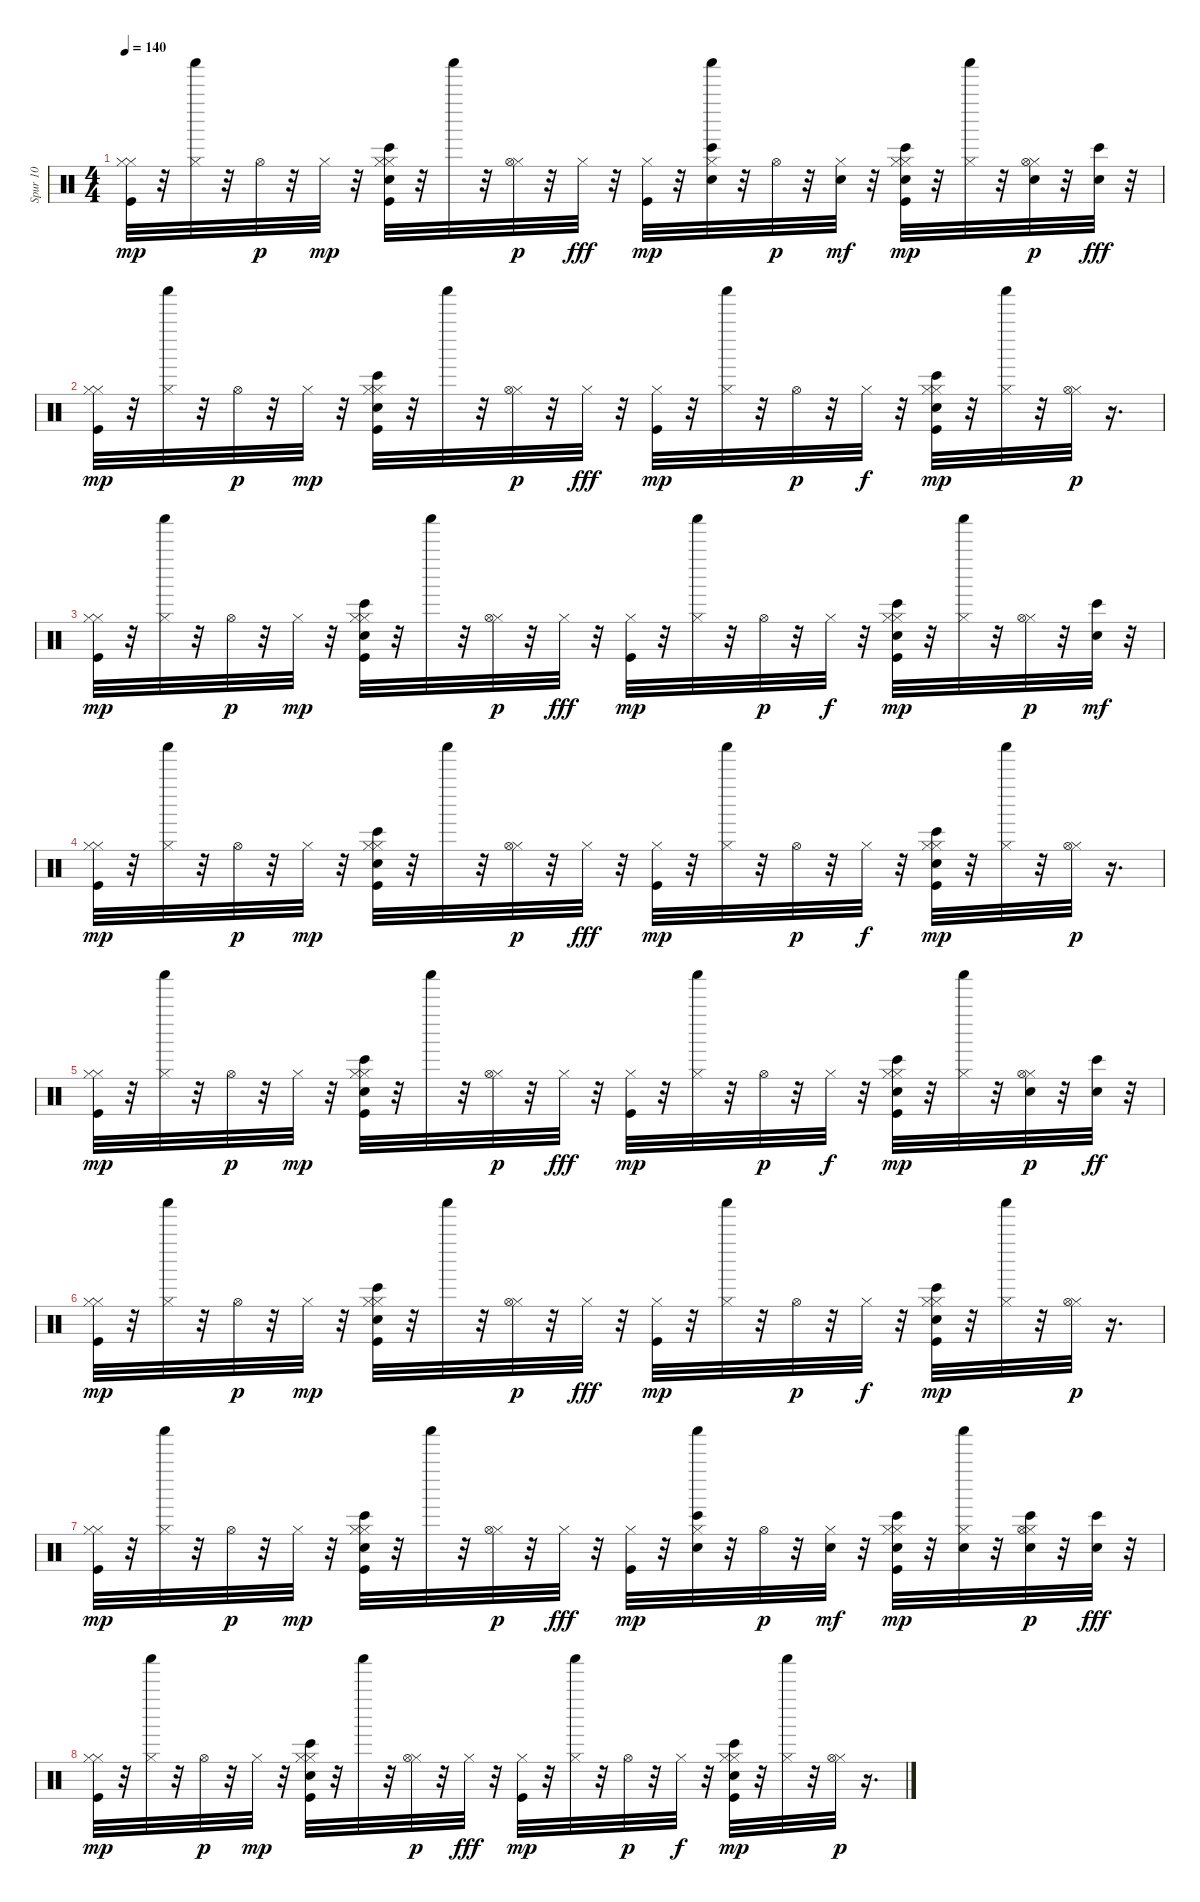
\track ("Spur 10" "Spur 10") {instrument percussion}
\staff {score}
\articulation defaults
\ts (4 4)
\tempo 140
\clef neutral
\ks c
("Hi-Hat (closed)" "Kick (hit)" "Hi-Hat (closed)").32{dy mp} r.32 ("Hi-Hat (closed)" "Shaker (hit)").32 r.32 "Hi-Hat (open)".32{dy p} r.32 "Hi-Hat (closed)".32{dy mp} r.32 ("Hi-Hat (closed)" "Kick (hit)" "Bongo High (hit)" "Electric Snare (hit)" "Hi-Hat (closed)").32 r.32 "Shaker (hit)".32 r.32 ("Hi-Hat (closed)" "Hi-Hat (open)").32{dy p} r.32 "Hi-Hat (closed)".32{dy fff} r.32 ("Kick (hit)" "Hi-Hat (closed)").32{dy mp} r.32 ("Hi-Hat (closed)" "Shaker (hit)" "Electric Snare (hit)" "Bongo High (hit)").32 r.32 "Hi-Hat (open)".32{dy p} r.32 ("Hi-Hat (closed)" "Snare (hit) 2").32{dy mf} r.32 ("Hi-Hat (closed)" "Kick (hit)" "Bongo High (hit)" "Electric Snare (hit)" "Hi-Hat (closed)").32{dy mp} r.32 ("Hi-Hat (closed)" "Shaker (hit)").32 r.32 ("Hi-Hat (closed)" "Snare (hit) 2" "Hi-Hat (open)").32{dy p} r.32 ("Bongo High (hit)" "Electric Snare (hit)").32{dy fff} r.32 |
("Hi-Hat (closed)" "Kick (hit)" "Hi-Hat (closed)").32{dy mp} r.32 ("Hi-Hat (closed)" "Shaker (hit)").32 r.32 "Hi-Hat (open)".32{dy p} r.32 "Hi-Hat (closed)".32{dy mp} r.32 ("Hi-Hat (closed)" "Kick (hit)" "Bongo High (hit)" "Electric Snare (hit)" "Hi-Hat (closed)").32 r.32 "Shaker (hit)".32 r.32 ("Hi-Hat (closed)" "Hi-Hat (open)").32{dy p} r.32 "Hi-Hat (closed)".32{dy fff} r.32 ("Kick (hit)" "Hi-Hat (closed)").32{dy mp} r.32 ("Hi-Hat (closed)" "Shaker (hit)").32 r.32 "Hi-Hat (open)".32{dy p} r.32 "Hi-Hat (closed)".32{dy f} r.32 ("Hi-Hat (closed)" "Kick (hit)" "Bongo High (hit)" "Electric Snare (hit)" "Hi-Hat (closed)").32{dy mp} r.32 ("Hi-Hat (closed)" "Shaker (hit)").32 r.32 ("Hi-Hat (closed)" "Hi-Hat (open)").32{dy p} r.16{d} |
("Hi-Hat (closed)" "Kick (hit)" "Hi-Hat (closed)").32{dy mp} r.32 ("Hi-Hat (closed)" "Shaker (hit)").32 r.32 "Hi-Hat (open)".32{dy p} r.32 "Hi-Hat (closed)".32{dy mp} r.32 ("Hi-Hat (closed)" "Kick (hit)" "Bongo High (hit)" "Electric Snare (hit)" "Hi-Hat (closed)").32 r.32 "Shaker (hit)".32 r.32 ("Hi-Hat (closed)" "Hi-Hat (open)").32{dy p} r.32 "Hi-Hat (closed)".32{dy fff} r.32 ("Kick (hit)" "Hi-Hat (closed)").32{dy mp} r.32 ("Hi-Hat (closed)" "Shaker (hit)").32 r.32 "Hi-Hat (open)".32{dy p} r.32 "Hi-Hat (closed)".32{dy f} r.32 ("Hi-Hat (closed)" "Kick (hit)" "Bongo High (hit)" "Electric Snare (hit)" "Hi-Hat (closed)").32{dy mp} r.32 ("Hi-Hat (closed)" "Shaker (hit)").32 r.32 ("Hi-Hat (closed)" "Hi-Hat (open)").32{dy p} r.32 ("Bongo High (hit)" "Electric Snare (hit)").32{dy mf} r.32 |
("Hi-Hat (closed)" "Kick (hit)" "Hi-Hat (closed)").32{dy mp} r.32 ("Hi-Hat (closed)" "Shaker (hit)").32 r.32 "Hi-Hat (open)".32{dy p} r.32 "Hi-Hat (closed)".32{dy mp} r.32 ("Hi-Hat (closed)" "Kick (hit)" "Bongo High (hit)" "Electric Snare (hit)" "Hi-Hat (closed)").32 r.32 "Shaker (hit)".32 r.32 ("Hi-Hat (closed)" "Hi-Hat (open)").32{dy p} r.32 "Hi-Hat (closed)".32{dy fff} r.32 ("Kick (hit)" "Hi-Hat (closed)").32{dy mp} r.32 ("Hi-Hat (closed)" "Shaker (hit)").32 r.32 "Hi-Hat (open)".32{dy p} r.32 "Hi-Hat (closed)".32{dy f} r.32 ("Hi-Hat (closed)" "Kick (hit)" "Bongo High (hit)" "Electric Snare (hit)" "Hi-Hat (closed)").32{dy mp} r.32 ("Hi-Hat (closed)" "Shaker (hit)").32 r.32 ("Hi-Hat (closed)" "Hi-Hat (open)").32{dy p} r.16{d} |
("Hi-Hat (closed)" "Kick (hit)" "Hi-Hat (closed)").32{dy mp} r.32 ("Hi-Hat (closed)" "Shaker (hit)").32 r.32 "Hi-Hat (open)".32{dy p} r.32 "Hi-Hat (closed)".32{dy mp} r.32 ("Hi-Hat (closed)" "Kick (hit)" "Bongo High (hit)" "Electric Snare (hit)" "Hi-Hat (closed)").32 r.32 "Shaker (hit)".32 r.32 ("Hi-Hat (closed)" "Hi-Hat (open)").32{dy p} r.32 "Hi-Hat (closed)".32{dy fff} r.32 ("Kick (hit)" "Hi-Hat (closed)").32{dy mp} r.32 ("Hi-Hat (closed)" "Shaker (hit)").32 r.32 "Hi-Hat (open)".32{dy p} r.32 "Hi-Hat (closed)".32{dy f} r.32 ("Hi-Hat (closed)" "Kick (hit)" "Bongo High (hit)" "Electric Snare (hit)" "Hi-Hat (closed)").32{dy mp} r.32 ("Hi-Hat (closed)" "Shaker (hit)").32 r.32 ("Electric Snare (hit)" "Hi-Hat (closed)" "Hi-Hat (open)").32{dy p} r.32 ("Bongo High (hit)" "Electric Snare (hit)").32{dy ff} r.32 |
("Hi-Hat (closed)" "Kick (hit)" "Hi-Hat (closed)").32{dy mp} r.32 ("Hi-Hat (closed)" "Shaker (hit)").32 r.32 "Hi-Hat (open)".32{dy p} r.32 "Hi-Hat (closed)".32{dy mp} r.32 ("Hi-Hat (closed)" "Kick (hit)" "Bongo High (hit)" "Electric Snare (hit)" "Hi-Hat (closed)").32 r.32 "Shaker (hit)".32 r.32 ("Hi-Hat (closed)" "Hi-Hat (open)").32{dy p} r.32 "Hi-Hat (closed)".32{dy fff} r.32 ("Kick (hit)" "Hi-Hat (closed)").32{dy mp} r.32 ("Hi-Hat (closed)" "Shaker (hit)").32 r.32 "Hi-Hat (open)".32{dy p} r.32 "Hi-Hat (closed)".32{dy f} r.32 ("Hi-Hat (closed)" "Kick (hit)" "Bongo High (hit)" "Electric Snare (hit)" "Hi-Hat (closed)").32{dy mp} r.32 ("Hi-Hat (closed)" "Shaker (hit)").32 r.32 ("Hi-Hat (closed)" "Hi-Hat (open)").32{dy p} r.16{d} |
("Hi-Hat (closed)" "Kick (hit)" "Hi-Hat (closed)").32{dy mp} r.32 ("Hi-Hat (closed)" "Shaker (hit)").32 r.32 "Hi-Hat (open)".32{dy p} r.32 "Hi-Hat (closed)".32{dy mp} r.32 ("Hi-Hat (closed)" "Kick (hit)" "Bongo High (hit)" "Electric Snare (hit)" "Hi-Hat (closed)").32 r.32 "Shaker (hit)".32 r.32 ("Hi-Hat (closed)" "Hi-Hat (open)").32{dy p} r.32 "Hi-Hat (closed)".32{dy fff} r.32 ("Kick (hit)" "Hi-Hat (closed)").32{dy mp} r.32 ("Hi-Hat (closed)" "Shaker (hit)" "Electric Snare (hit)" "Bongo High (hit)").32 r.32 "Hi-Hat (open)".32{dy p} r.32 ("Hi-Hat (closed)" "Snare (hit) 2").32{dy mf} r.32 ("Hi-Hat (closed)" "Kick (hit)" "Bongo High (hit)" "Electric Snare (hit)" "Hi-Hat (closed)").32{dy mp} r.32 ("Hi-Hat (closed)" "Snare (hit) 2" "Shaker (hit)").32 r.32 ("Hi-Hat (closed)" "Electric Snare (hit)" "Bongo High (hit)" "Hi-Hat (open)").32{dy p} r.32 ("Bongo High (hit)" "Electric Snare (hit)").32{dy fff} r.32 |
("Hi-Hat (closed)" "Kick (hit)" "Hi-Hat (closed)").32{dy mp} r.32 ("Hi-Hat (closed)" "Shaker (hit)").32 r.32 "Hi-Hat (open)".32{dy p} r.32 "Hi-Hat (closed)".32{dy mp} r.32 ("Hi-Hat (closed)" "Kick (hit)" "Bongo High (hit)" "Electric Snare (hit)" "Hi-Hat (closed)").32 r.32 "Shaker (hit)".32 r.32 ("Hi-Hat (closed)" "Hi-Hat (open)").32{dy p} r.32 "Hi-Hat (closed)".32{dy fff} r.32 ("Kick (hit)" "Hi-Hat (closed)").32{dy mp} r.32 ("Hi-Hat (closed)" "Shaker (hit)").32 r.32 "Hi-Hat (open)".32{dy p} r.32 "Hi-Hat (closed)".32{dy f} r.32 ("Hi-Hat (closed)" "Kick (hit)" "Bongo High (hit)" "Electric Snare (hit)" "Hi-Hat (closed)").32{dy mp} r.32 ("Hi-Hat (closed)" "Shaker (hit)").32 r.32 ("Hi-Hat (closed)" "Hi-Hat (open)").32{dy p} r.16{d}
